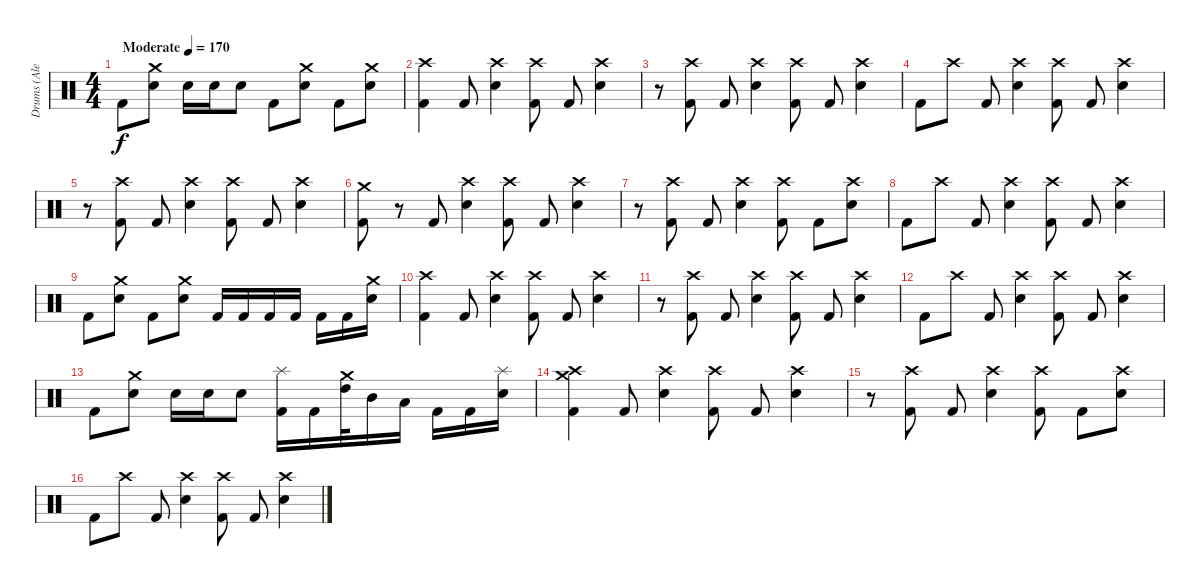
\track ("Drums (Alex Shelnutt)" "Drums (Ale") {instrument percussion}
\staff {score}
\articulation defaults
\ts (4 4)
\tempo (170 "Moderate")
\clef neutral
\ks c "Kick (hit) 2".8{dy f}
("Crash medium (hit)" "Electric Snare (hit)").8 "Electric Snare (hit)".16 "Electric Snare (hit)".16 "Electric Snare (hit)".8 "Kick (hit) 2".8 ("Crash medium (hit)" "Electric Snare (hit)").8 "Kick (hit) 2".8 ("Crash medium (hit)" "Electric Snare (hit)").8 |
("Crash high (hit)" "Kick (hit) 2").4 "Kick (hit) 2".8 ("Crash high (hit)" "Electric Snare (hit)").4 ("Crash high (hit)" "Kick (hit) 2").8 "Kick (hit) 2".8 ("Crash high (hit)" "Electric Snare (hit)").4 |
r.8 ("Crash high (hit)" "Kick (hit) 2").8 "Kick (hit) 2".8 ("Crash high (hit)" "Electric Snare (hit)").4 ("Crash high (hit)" "Kick (hit) 2").8 "Kick (hit) 2".8 ("Crash high (hit)" "Electric Snare (hit)").4 |
"Kick (hit) 2".8 "Crash high (hit)".8 "Kick (hit) 2".8 ("Crash high (hit)" "Electric Snare (hit)").4 ("Crash high (hit)" "Kick (hit) 2").8 "Kick (hit) 2".8 ("Crash high (hit)" "Electric Snare (hit)").4 |
r.8 ("Crash high (hit)" "Kick (hit) 2").8 "Kick (hit) 2".8 ("Crash high (hit)" "Electric Snare (hit)").4 ("Crash high (hit)" "Kick (hit) 2").8 "Kick (hit) 2".8 ("Crash high (hit)" "Electric Snare (hit)").4 |
("Crash medium (hit)" "Kick (hit) 2").8 r.8 "Kick (hit) 2".8 ("Crash high (hit)" "Electric Snare (hit)").4 ("Crash high (hit)" "Kick (hit) 2").8 "Kick (hit) 2".8 ("Crash high (hit)" "Electric Snare (hit)").4 |
r.8 ("Crash high (hit)" "Kick (hit) 2").8 "Kick (hit) 2".8 ("Crash high (hit)" "Electric Snare (hit)").4 ("Crash high (hit)" "Kick (hit) 2").8 "Kick (hit) 2".8 ("Crash high (hit)" "Electric Snare (hit)").8 |
"Kick (hit) 2".8 "Crash high (hit)".8 "Kick (hit) 2".8 ("Crash high (hit)" "Electric Snare (hit)").4 ("Crash high (hit)" "Kick (hit) 2").8 "Kick (hit) 2".8 ("Crash high (hit)" "Electric Snare (hit)").4 |
"Kick (hit) 2".8 ("Crash medium (hit)" "Electric Snare (hit)").8 "Kick (hit) 2".8 ("Crash medium (hit)" "Electric Snare (hit)").8 "Kick (hit) 2".16 "Kick (hit) 2".16 "Kick (hit) 2".16 "Kick (hit) 2".16 "Kick (hit) 2".16 "Kick (hit) 2".16 ("Crash medium (hit)" "Electric Snare (hit)").16 |
("Crash high (hit)" "Kick (hit) 2").4 "Kick (hit) 2".8 ("Crash high (hit)" "Electric Snare (hit)").4 ("Crash high (hit)" "Kick (hit) 2").8 "Kick (hit) 2".8 ("Crash high (hit)" "Electric Snare (hit)").4 |
r.8 ("Crash high (hit)" "Kick (hit) 2").8 "Kick (hit) 2".8 ("Crash high (hit)" "Electric Snare (hit)").4 ("Crash high (hit)" "Kick (hit) 2").8 "Kick (hit) 2".8 ("Crash high (hit)" "Electric Snare (hit)").4 |
"Kick (hit) 2".8 "Crash high (hit)".8 "Kick (hit) 2".8 ("Crash high (hit)" "Electric Snare (hit)").4 ("Crash high (hit)" "Kick (hit) 2").8 "Kick (hit) 2".8 ("Crash high (hit)" "Electric Snare (hit)").4 |
"Kick (hit) 2".8 ("Crash medium (hit)" "Electric Snare (hit)").8 "Electric Snare (hit)".16 "Electric Snare (hit)".16 "Electric Snare (hit)".8 ("Splash (hit)" "Kick (hit) 2").16 "Kick (hit) 2".16 ("Crash medium (hit)" "High Tom (hit)").32 "Mid Tom (hit)".16 "Low Tom (hit)".16 "Kick (hit) 2".16 "Kick (hit) 2".16 ("Splash (hit)" "Electric Snare (hit)").16 |
("Crash medium (hit)" "Crash high (hit)" "Kick (hit) 2").4 "Kick (hit) 2".8 ("Crash high (hit)" "Electric Snare (hit)").4 ("Crash high (hit)" "Kick (hit) 2").8 "Kick (hit) 2".8 ("Crash high (hit)" "Electric Snare (hit)").4 |
r.8 ("Crash high (hit)" "Kick (hit) 2").8 "Kick (hit) 2".8 ("Crash high (hit)" "Electric Snare (hit)").4 ("Crash high (hit)" "Kick (hit) 2").8 "Kick (hit) 2".8 ("Crash high (hit)" "Electric Snare (hit)").8 |
"Kick (hit) 2".8 "Crash high (hit)".8 "Kick (hit) 2".8 ("Crash high (hit)" "Electric Snare (hit)").4 ("Crash high (hit)" "Kick (hit) 2").8 "Kick (hit) 2".8 ("Crash high (hit)" "Electric Snare (hit)").4
